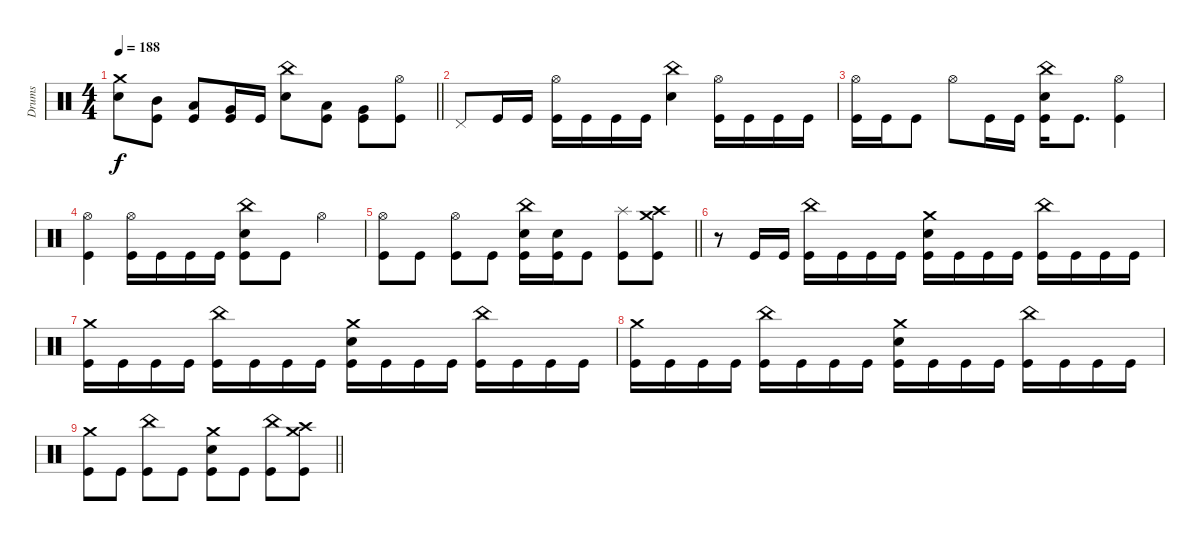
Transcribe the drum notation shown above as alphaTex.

\track ("Drums" "Drums") {instrument percussion}
\staff
\articulation defaults
\ts (4 4)
\tempo 188
\clef neutral
\barLineRight lightlight
\ks c
("Crash medium (hit)" "Electric Snare (hit)").8{dy f} ("Mid Tom (hit)" "Kick (hit)").8 ("Low Tom (hit)" "Kick (hit)").8 ("Very Low Tom (hit)" "Kick (hit)").16 "Kick (hit)".16 ("China (hit)" "Electric Snare (hit)").8 ("Low Tom (hit)" "Kick (hit)").8 ("Very Low Tom (hit)" "Kick (hit)").8 ("Hi-Hat (open)" "Kick (hit)").8 |
\section ("" "")
"Pedal Hi-Hat (hit)".8 "Kick (hit)".16 "Kick (hit)".16 ("Hi-Hat (open)" "Kick (hit)").16 "Kick (hit)".16 "Kick (hit)".16 "Kick (hit)".16 ("China (hit)" "Electric Snare (hit)").4 ("Hi-Hat (open)" "Kick (hit)").16 "Kick (hit)".16 "Kick (hit)".16 "Kick (hit)".16 |
("Hi-Hat (open)" "Kick (hit)").16 "Kick (hit)".16 "Kick (hit)".8 "Hi-Hat (open)".8 "Kick (hit)".16 "Kick (hit)".16 ("China (hit)" "Electric Snare (hit)" "Kick (hit)").16 "Kick (hit)".8{d} ("Hi-Hat (open)" "Kick (hit)").4 |
("Hi-Hat (open)" "Kick (hit)").4 ("Hi-Hat (open)" "Kick (hit)").16 "Kick (hit)".16 "Kick (hit)".16 "Kick (hit)".16 ("China (hit)" "Electric Snare (hit)" "Kick (hit)").8 "Kick (hit)".8 "Hi-Hat (open)".4 |
\barLineRight lightlight
("Hi-Hat (open)" "Kick (hit)").8 "Kick (hit)".8 ("Hi-Hat (open)" "Kick (hit)").8 "Kick (hit)".8 ("China (hit)" "Electric Snare (hit)" "Kick (hit)").16 ("Electric Snare (hit)" "Kick (hit)").16 "Kick (hit)".8 ("Splash (hit)" "Kick (hit)").8 ("Crash high (hit)" "Crash medium (hit)" "Kick (hit)").8 |
r.8 "Kick (hit)".16 "Kick (hit)".16 ("China (hit)" "Kick (hit)").16 "Kick (hit)".16 "Kick (hit)".16 "Kick (hit)".16 ("Crash medium (hit)" "Electric Snare (hit)" "Kick (hit)").16 "Kick (hit)".16 "Kick (hit)".16 "Kick (hit)".16 ("China (hit)" "Kick (hit)").16 "Kick (hit)".16 "Kick (hit)".16 "Kick (hit)".16 |
("Crash medium (hit)" "Kick (hit)").16 "Kick (hit)".16 "Kick (hit)".16 "Kick (hit)".16 ("China (hit)" "Kick (hit)").16 "Kick (hit)".16 "Kick (hit)".16 "Kick (hit)".16 ("Crash medium (hit)" "Electric Snare (hit)" "Kick (hit)").16 "Kick (hit)".16 "Kick (hit)".16 "Kick (hit)".16 ("China (hit)" "Kick (hit)").16 "Kick (hit)".16 "Kick (hit)".16 "Kick (hit)".16 |
("Crash medium (hit)" "Kick (hit)").16 "Kick (hit)".16 "Kick (hit)".16 "Kick (hit)".16 ("China (hit)" "Kick (hit)").16 "Kick (hit)".16 "Kick (hit)".16 "Kick (hit)".16 ("Crash medium (hit)" "Electric Snare (hit)" "Kick (hit)").16 "Kick (hit)".16 "Kick (hit)".16 "Kick (hit)".16 ("China (hit)" "Kick (hit)").16 "Kick (hit)".16 "Kick (hit)".16 "Kick (hit)".16 |
\barLineRight lightlight
("Crash medium (hit)" "Kick (hit)").8 "Kick (hit)".8 ("China (hit)" "Kick (hit)").8 "Kick (hit)".8 ("Crash medium (hit)" "Electric Snare (hit)" "Kick (hit)").8 "Kick (hit)".8 ("China (hit)" "Kick (hit)").8 ("Crash high (hit)" "Crash medium (hit)" "Kick (hit)").8
